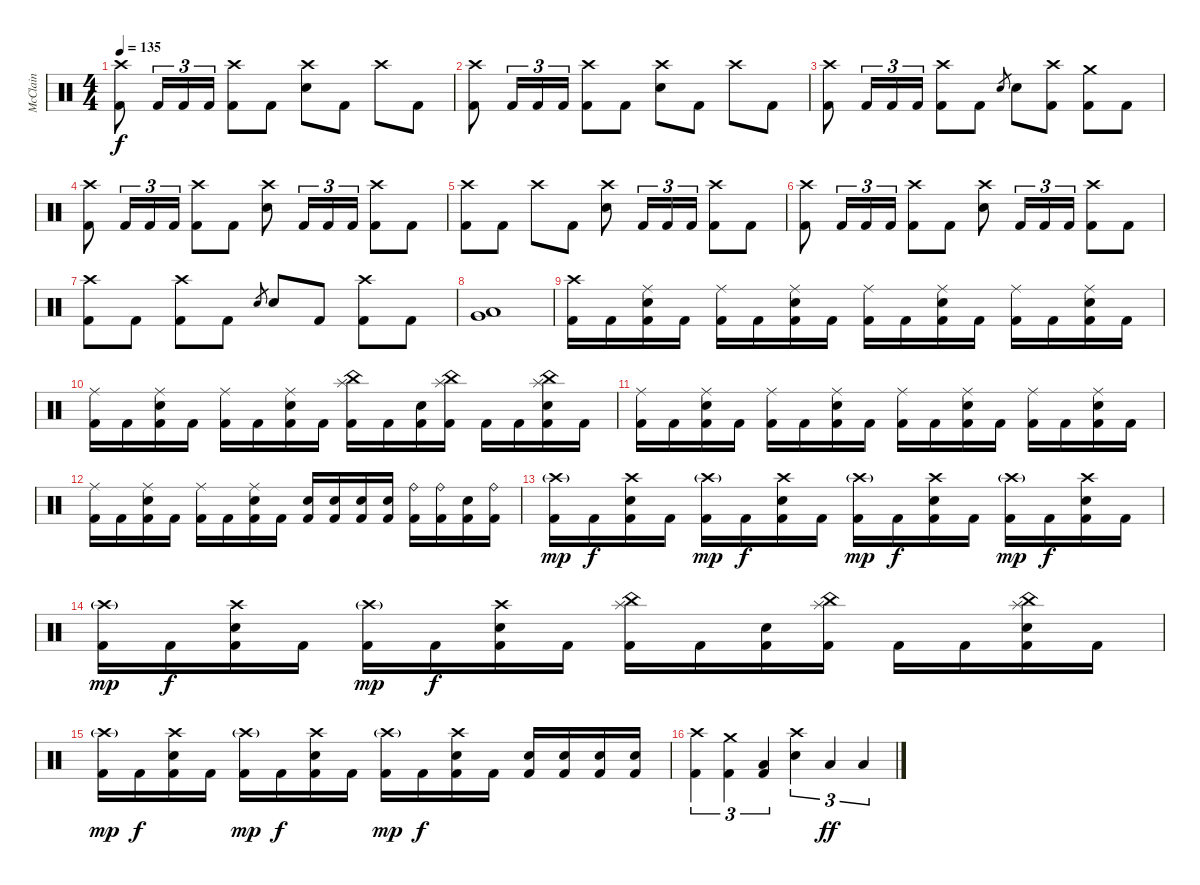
\track ("McClain" "McClain") {instrument percussion}
\staff {score}
\articulation defaults
\ts (4 4)
\tempo 135
\clef neutral
\ks c
("Crash high (hit)" "Kick (hit) 2").8{dy f} "Kick (hit) 2".16{tu (3 2)} "Kick (hit) 2".16{tu (3 2)} "Kick (hit) 2".16{tu (3 2)} ("Crash high (hit)" "Kick (hit) 2").8 "Kick (hit) 2".8 ("Crash high (hit)" "Electric Snare (hit)").8 "Kick (hit) 2".8 "Crash high (hit)".8 "Kick (hit) 2".8 |
("Crash high (hit)" "Kick (hit) 2").8 "Kick (hit) 2".16{tu (3 2)} "Kick (hit) 2".16{tu (3 2)} "Kick (hit) 2".16{tu (3 2)} ("Crash high (hit)" "Kick (hit) 2").8 "Kick (hit) 2".8 ("Crash high (hit)" "Electric Snare (hit)").8 "Kick (hit) 2".8 "Crash high (hit)".8 "Kick (hit) 2".8 |
("Crash high (hit)" "Kick (hit) 2").8 "Kick (hit) 2".16{tu (3 2)} "Kick (hit) 2".16{tu (3 2)} "Kick (hit) 2".16{tu (3 2)} ("Crash high (hit)" "Kick (hit) 2").8 "Kick (hit) 2".8 "Electric Snare (hit)".8{gr} "Electric Snare (hit)".8 ("Crash high (hit)" "Kick (hit) 2").8 ("Crash medium (hit)" "Kick (hit) 2").8 "Kick (hit) 2".8 |
("Crash high (hit)" "Kick (hit) 2").8 "Kick (hit) 2".16{tu (3 2)} "Kick (hit) 2".16{tu (3 2)} "Kick (hit) 2".16{tu (3 2)} ("Crash high (hit)" "Kick (hit) 2").8 "Kick (hit) 2".8 ("Crash high (hit)" "Electric Snare (hit)").8 "Kick (hit) 2".16{tu (3 2)} "Kick (hit) 2".16{tu (3 2)} "Kick (hit) 2".16{tu (3 2)} ("Crash high (hit)" "Kick (hit) 2").8 "Kick (hit) 2".8 |
("Crash high (hit)" "Kick (hit) 2").8 "Kick (hit) 2".8 "Crash high (hit)".8 "Kick (hit) 2".8 ("Crash high (hit)" "Electric Snare (hit)").8 "Kick (hit) 2".16{tu (3 2)} "Kick (hit) 2".16{tu (3 2)} "Kick (hit) 2".16{tu (3 2)} ("Crash high (hit)" "Kick (hit) 2").8 "Kick (hit) 2".8 |
("Crash high (hit)" "Kick (hit) 2").8 "Kick (hit) 2".16{tu (3 2)} "Kick (hit) 2".16{tu (3 2)} "Kick (hit) 2".16{tu (3 2)} ("Crash high (hit)" "Kick (hit) 2").8 "Kick (hit) 2".8 ("Crash high (hit)" "Electric Snare (hit)").8 "Kick (hit) 2".16{tu (3 2)} "Kick (hit) 2".16{tu (3 2)} "Kick (hit) 2".16{tu (3 2)} ("Crash high (hit)" "Kick (hit) 2").8 "Kick (hit) 2".8 |
("Crash high (hit)" "Kick (hit) 2").8 "Kick (hit) 2".8 ("Crash high (hit)" "Kick (hit) 2").8 "Kick (hit) 2".8 "Electric Snare (hit)".8{gr} "Electric Snare (hit)".8 "Kick (hit) 2".8 ("Crash high (hit)" "Kick (hit) 2").8 "Kick (hit) 2".8 |
("Very Low Tom (hit)" "Low Floor Tom (hit)").1 |
("Crash high (hit)" "Kick (hit) 2").16 "Kick (hit) 2".16 ("Ride (middle)" "Electric Snare (hit)" "Kick (hit) 2").16 "Kick (hit) 2".16 ("Ride (middle)" "Kick (hit) 2").16 "Kick (hit) 2".16 ("Ride (middle)" "Electric Snare (hit)" "Kick (hit) 2").16 "Kick (hit) 2".16 ("Ride (middle)" "Kick (hit) 2").16 "Kick (hit) 2".16 ("Ride (middle)" "Electric Snare (hit)" "Kick (hit) 2").16 "Kick (hit) 2".16 ("Ride (middle)" "Kick (hit) 2").16 "Kick (hit) 2".16 ("Ride (middle)" "Electric Snare (hit)" "Kick (hit) 2").16 "Kick (hit) 2".16 |
("Ride (middle)" "Kick (hit) 2").16 "Kick (hit) 2".16 ("Ride (middle)" "Electric Snare (hit)" "Kick (hit) 2").16 "Kick (hit) 2".16 ("Ride (middle)" "Kick (hit) 2").16 "Kick (hit) 2".16 ("Ride (middle)" "Electric Snare (hit)" "Kick (hit) 2").16 "Kick (hit) 2".16 ("China (hit)" "Splash (hit)" "Kick (hit) 2").16 "Kick (hit) 2".16 ("Electric Snare (hit)" "Kick (hit) 2").16 ("China (hit)" "Splash (hit)" "Kick (hit) 2").16 "Kick (hit) 2".16 "Kick (hit) 2".16 ("China (hit)" "Splash (hit)" "Electric Snare (hit)" "Kick (hit) 2").16 "Kick (hit) 2".16 |
("Ride (middle)" "Kick (hit) 2").16 "Kick (hit) 2".16 ("Ride (middle)" "Electric Snare (hit)" "Kick (hit) 2").16 "Kick (hit) 2".16 ("Ride (middle)" "Kick (hit) 2").16 "Kick (hit) 2".16 ("Ride (middle)" "Electric Snare (hit)" "Kick (hit) 2").16 "Kick (hit) 2".16 ("Ride (middle)" "Kick (hit) 2").16 "Kick (hit) 2".16 ("Ride (middle)" "Electric Snare (hit)" "Kick (hit) 2").16 "Kick (hit) 2".16 ("Ride (middle)" "Kick (hit) 2").16 "Kick (hit) 2".16 ("Ride (middle)" "Electric Snare (hit)" "Kick (hit) 2").16 "Kick (hit) 2".16 |
("Ride (middle)" "Kick (hit) 2").16 "Kick (hit) 2".16 ("Ride (middle)" "Electric Snare (hit)" "Kick (hit) 2").16 "Kick (hit) 2".16 ("Ride (middle)" "Kick (hit) 2").16 "Kick (hit) 2".16 ("Ride (middle)" "Electric Snare (hit)" "Kick (hit) 2").16 "Kick (hit) 2".16 ("Electric Snare (hit)" "Kick (hit) 2").16 ("Electric Snare (hit)" "Kick (hit) 2").16 ("Electric Snare (hit)" "Kick (hit) 2").16 ("Electric Snare (hit)" "Kick (hit) 2").16 ("Ride (bell)" "Kick (hit) 2").16 ("Ride (bell)" "Kick (hit) 2").16 ("Electric Snare (hit)" "Kick (hit) 2").16 ("Ride (bell)" "Kick (hit) 2").16 |
("Crash high (hit)"{g} "Kick (hit) 2").16{dy mp} "Kick (hit) 2".16{dy f} ("Crash high (hit)" "Electric Snare (hit)" "Kick (hit) 2").16 "Kick (hit) 2".16 ("Crash high (hit)"{g} "Kick (hit) 2").16{dy mp} "Kick (hit) 2".16{dy f} ("Crash high (hit)" "Electric Snare (hit)" "Kick (hit) 2").16 "Kick (hit) 2".16 ("Crash high (hit)"{g} "Kick (hit) 2").16{dy mp} "Kick (hit) 2".16{dy f} ("Crash high (hit)" "Electric Snare (hit)" "Kick (hit) 2").16 "Kick (hit) 2".16 ("Crash high (hit)"{g} "Kick (hit) 2").16{dy mp} "Kick (hit) 2".16{dy f} ("Crash high (hit)" "Electric Snare (hit)" "Kick (hit) 2").16 "Kick (hit) 2".16 |
("Crash high (hit)"{g} "Kick (hit) 2").16{dy mp} "Kick (hit) 2".16{dy f} ("Crash high (hit)" "Electric Snare (hit)" "Kick (hit) 2").16 "Kick (hit) 2".16 ("Crash high (hit)"{g} "Kick (hit) 2").16{dy mp} "Kick (hit) 2".16{dy f} ("Crash high (hit)" "Electric Snare (hit)" "Kick (hit) 2").16 "Kick (hit) 2".16 ("China (hit)" "Splash (hit)" "Kick (hit) 2").16 "Kick (hit) 2".16 ("Electric Snare (hit)" "Kick (hit) 2").16 ("China (hit)" "Splash (hit)" "Kick (hit) 2").16 "Kick (hit) 2".16 "Kick (hit) 2".16 ("China (hit)" "Splash (hit)" "Electric Snare (hit)" "Kick (hit) 2").16 "Kick (hit) 2".16 |
("Crash high (hit)"{g} "Kick (hit) 2").16{dy mp} "Kick (hit) 2".16{dy f} ("Crash high (hit)" "Electric Snare (hit)" "Kick (hit) 2").16 "Kick (hit) 2".16 ("Crash high (hit)"{g} "Kick (hit) 2").16{dy mp} "Kick (hit) 2".16{dy f} ("Crash high (hit)" "Electric Snare (hit)" "Kick (hit) 2").16 "Kick (hit) 2".16 ("Crash high (hit)"{g} "Kick (hit) 2").16{dy mp} "Kick (hit) 2".16{dy f} ("Crash high (hit)" "Electric Snare (hit)" "Kick (hit) 2").16 "Kick (hit) 2".16 ("Electric Snare (hit)" "Kick (hit) 2").16 ("Electric Snare (hit)" "Kick (hit) 2").16 ("Electric Snare (hit)" "Kick (hit) 2").16 ("Electric Snare (hit)" "Kick (hit) 2").16 |
("Crash high (hit)" "Kick (hit) 2").4{tu (3 2)} ("Crash medium (hit)" "Kick (hit) 2").4{tu (3 2)} ("Low Floor Tom (hit)" "Kick (hit) 2").4{tu (3 2)} ("Crash high (hit)" "Electric Snare (hit)").4{tu (3 2)} "Low Tom (hit)".4{tu (3 2) dy ff} "Low Floor Tom (hit)".4{tu (3 2)}
